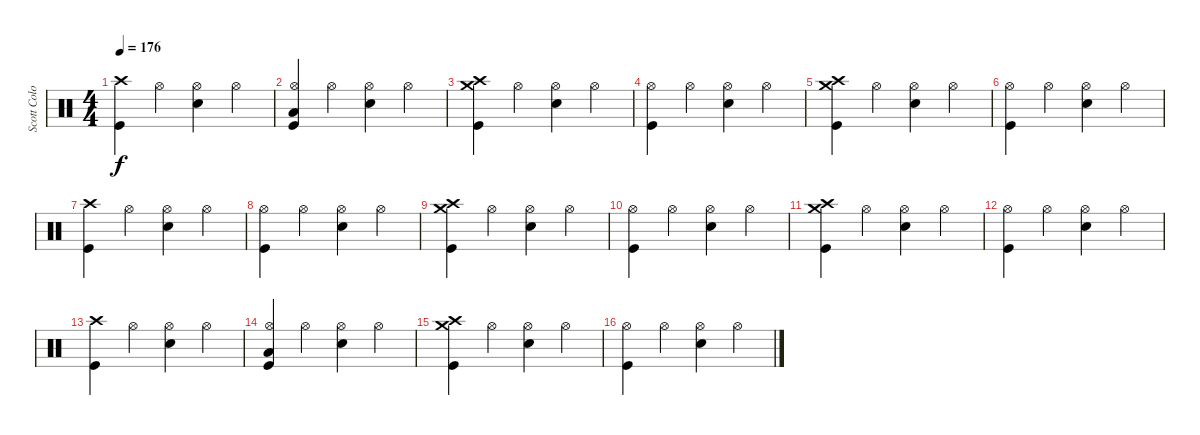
\track ("Scott Colombus" "Scott Colo") {instrument percussion}
\staff {score}
\articulation defaults
\ts (4 4)
\tempo 176
\clef neutral
\ks c
("Crash high (hit)" "Kick (hit)").4{dy f} "Hi-Hat (open)".4 ("Hi-Hat (open)" "Snare (hit) 2").4 "Hi-Hat (open)".4 |
("Low Floor Tom (hit)" "Hi-Hat (open)" "Kick (hit)").4 "Hi-Hat (open)".4 ("Hi-Hat (open)" "Snare (hit) 2").4 "Hi-Hat (open)".4 |
("Crash medium (hit)" "Crash high (hit)" "Kick (hit)").4 "Hi-Hat (open)".4 ("Hi-Hat (open)" "Snare (hit) 2").4 "Hi-Hat (open)".4 |
("Hi-Hat (open)" "Kick (hit)").4 "Hi-Hat (open)".4 ("Hi-Hat (open)" "Snare (hit) 2").4 "Hi-Hat (open)".4 |
("Crash medium (hit)" "Crash high (hit)" "Kick (hit)").4 "Hi-Hat (open)".4 ("Hi-Hat (open)" "Snare (hit) 2").4 "Hi-Hat (open)".4 |
("Hi-Hat (open)" "Kick (hit)").4 "Hi-Hat (open)".4 ("Hi-Hat (open)" "Snare (hit) 2").4 "Hi-Hat (open)".4 |
("Crash high (hit)" "Kick (hit)").4 "Hi-Hat (open)".4 ("Hi-Hat (open)" "Snare (hit) 2").4 "Hi-Hat (open)".4 |
("Hi-Hat (open)" "Kick (hit)").4 "Hi-Hat (open)".4 ("Hi-Hat (open)" "Snare (hit) 2").4 "Hi-Hat (open)".4 |
("Crash medium (hit)" "Crash high (hit)" "Kick (hit)").4 "Hi-Hat (open)".4 ("Hi-Hat (open)" "Snare (hit) 2").4 "Hi-Hat (open)".4 |
("Hi-Hat (open)" "Kick (hit)").4 "Hi-Hat (open)".4 ("Hi-Hat (open)" "Snare (hit) 2").4 "Hi-Hat (open)".4 |
("Crash medium (hit)" "Crash high (hit)" "Kick (hit)").4 "Hi-Hat (open)".4 ("Hi-Hat (open)" "Snare (hit) 2").4 "Hi-Hat (open)".4 |
("Hi-Hat (open)" "Kick (hit)").4 "Hi-Hat (open)".4 ("Hi-Hat (open)" "Snare (hit) 2").4 "Hi-Hat (open)".4 |
("Crash high (hit)" "Kick (hit)").4 "Hi-Hat (open)".4 ("Hi-Hat (open)" "Snare (hit) 2").4 "Hi-Hat (open)".4 |
("Low Floor Tom (hit)" "Hi-Hat (open)" "Kick (hit)").4 "Hi-Hat (open)".4 ("Hi-Hat (open)" "Snare (hit) 2").4 "Hi-Hat (open)".4 |
("Crash medium (hit)" "Crash high (hit)" "Kick (hit)").4 "Hi-Hat (open)".4 ("Hi-Hat (open)" "Snare (hit) 2").4 "Hi-Hat (open)".4 |
("Hi-Hat (open)" "Kick (hit)").4 "Hi-Hat (open)".4 ("Hi-Hat (open)" "Snare (hit) 2").4 "Hi-Hat (open)".4
